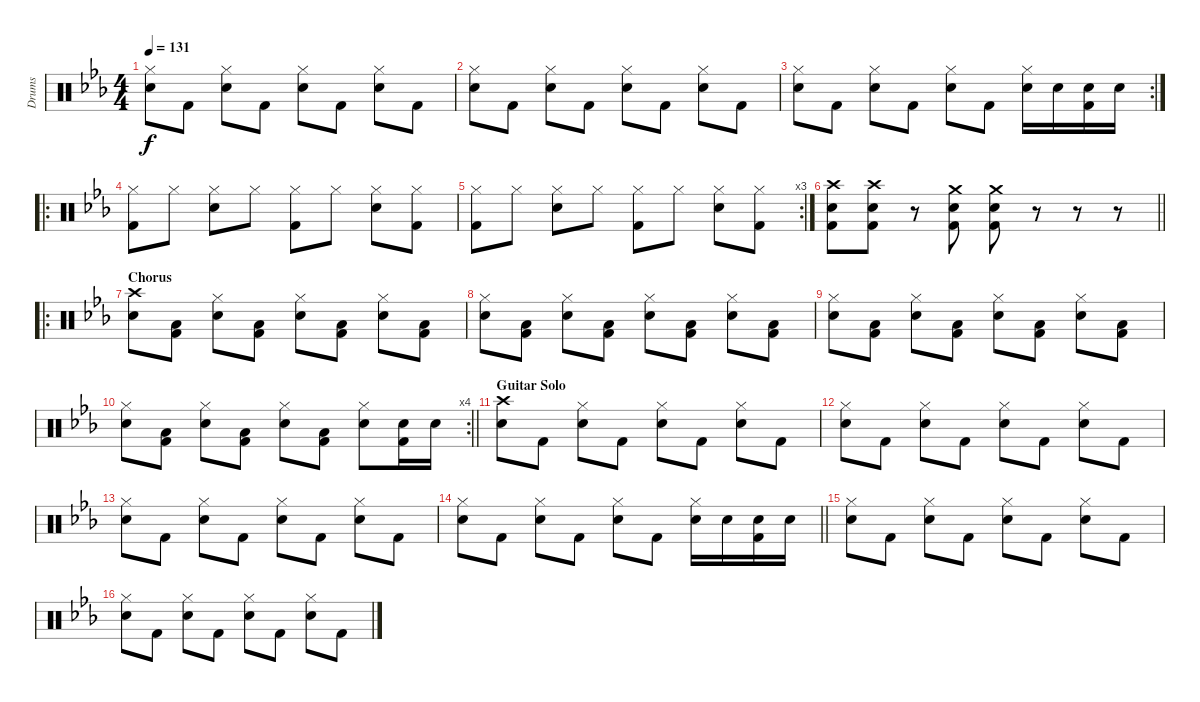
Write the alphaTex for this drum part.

\track ("Drums" "Drums") {instrument percussion}
\staff
\articulation defaults
\ts (4 4)
\tempo 131
\clef neutral
\ks eb
("Snare (hit) 2" "Hi-Hat (closed)").8{dy f} "Kick (hit) 2".8 ("Snare (hit) 2" "Hi-Hat (closed)").8 "Kick (hit) 2".8 ("Snare (hit) 2" "Hi-Hat (closed)").8 "Kick (hit) 2".8 ("Snare (hit) 2" "Hi-Hat (closed)").8 "Kick (hit) 2".8 |
("Snare (hit) 2" "Hi-Hat (closed)").8 "Kick (hit) 2".8 ("Snare (hit) 2" "Hi-Hat (closed)").8 "Kick (hit) 2".8 ("Snare (hit) 2" "Hi-Hat (closed)").8 "Kick (hit) 2".8 ("Snare (hit) 2" "Hi-Hat (closed)").8 "Kick (hit) 2".8 |
\rc 2
("Snare (hit) 2" "Hi-Hat (closed)").8 "Kick (hit) 2".8 ("Snare (hit) 2" "Hi-Hat (closed)").8 "Kick (hit) 2".8 ("Snare (hit) 2" "Hi-Hat (closed)").8 "Kick (hit) 2".8 ("Snare (hit) 2" "Hi-Hat (closed)").16 "Snare (hit) 2".16 ("Snare (hit) 2" "Kick (hit) 2").16 "Snare (hit) 2".16 |
\ro
("Hi-Hat (closed)" "Kick (hit) 2").8 "Hi-Hat (closed)".8 ("Snare (hit) 2" "Hi-Hat (closed)").8 "Hi-Hat (closed)".8 ("Hi-Hat (closed)" "Kick (hit) 2").8 "Hi-Hat (closed)".8 ("Snare (hit) 2" "Hi-Hat (closed)").8 ("Hi-Hat (closed)" "Kick (hit) 2").8 |
\rc 3
("Hi-Hat (closed)" "Kick (hit) 2").8 "Hi-Hat (closed)".8 ("Snare (hit) 2" "Hi-Hat (closed)").8 "Hi-Hat (closed)".8 ("Hi-Hat (closed)" "Kick (hit) 2").8 "Hi-Hat (closed)".8 ("Snare (hit) 2" "Hi-Hat (closed)").8 ("Hi-Hat (closed)" "Kick (hit) 2").8 |
\barLineRight lightlight
("Crash high (hit)" "Snare (hit) 2" "Kick (hit) 2").8 ("Crash high (hit)" "Snare (hit) 2" "Kick (hit) 2").8 r.8 ("Crash medium (hit)" "Snare (hit) 2" "Kick (hit) 2").8 ("Crash medium (hit)" "Snare (hit) 2" "Kick (hit) 2").8 r.8 r.8 r.8 |
\ro
\section ("" "Chorus")
("Crash high (hit)" "Snare (hit) 2").8 ("Low Floor Tom (hit)" "Kick (hit) 2").8 ("Snare (hit) 2" "Hi-Hat (closed)").8 ("Low Floor Tom (hit)" "Kick (hit) 2").8 ("Snare (hit) 2" "Hi-Hat (closed)").8 ("Low Floor Tom (hit)" "Kick (hit) 2").8 ("Snare (hit) 2" "Hi-Hat (closed)").8 ("Low Floor Tom (hit)" "Kick (hit) 2").8 |
("Snare (hit) 2" "Hi-Hat (closed)").8 ("Low Floor Tom (hit)" "Kick (hit) 2").8 ("Snare (hit) 2" "Hi-Hat (closed)").8 ("Low Floor Tom (hit)" "Kick (hit) 2").8 ("Snare (hit) 2" "Hi-Hat (closed)").8 ("Low Floor Tom (hit)" "Kick (hit) 2").8 ("Snare (hit) 2" "Hi-Hat (closed)").8 ("Low Floor Tom (hit)" "Kick (hit) 2").8 |
("Snare (hit) 2" "Hi-Hat (closed)").8 ("Low Floor Tom (hit)" "Kick (hit) 2").8 ("Snare (hit) 2" "Hi-Hat (closed)").8 ("Low Floor Tom (hit)" "Kick (hit) 2").8 ("Snare (hit) 2" "Hi-Hat (closed)").8 ("Low Floor Tom (hit)" "Kick (hit) 2").8 ("Snare (hit) 2" "Hi-Hat (closed)").8 ("Low Floor Tom (hit)" "Kick (hit) 2").8 |
\rc 4
\barLineRight lightlight
("Snare (hit) 2" "Hi-Hat (closed)").8 ("Low Floor Tom (hit)" "Kick (hit) 2").8 ("Snare (hit) 2" "Hi-Hat (closed)").8 ("Low Floor Tom (hit)" "Kick (hit) 2").8 ("Snare (hit) 2" "Hi-Hat (closed)").8 ("Low Floor Tom (hit)" "Kick (hit) 2").8 ("Snare (hit) 2" "Hi-Hat (closed)").8 ("Snare (hit) 2" "Kick (hit) 2").16 "Snare (hit) 2".16 |
\section ("" "Guitar Solo")
("Crash high (hit)" "Snare (hit) 2").8 "Kick (hit) 2".8 ("Snare (hit) 2" "Hi-Hat (closed)").8 "Kick (hit) 2".8 ("Snare (hit) 2" "Hi-Hat (closed)").8 "Kick (hit) 2".8 ("Snare (hit) 2" "Hi-Hat (closed)").8 "Kick (hit) 2".8 |
("Snare (hit) 2" "Hi-Hat (closed)").8 "Kick (hit) 2".8 ("Snare (hit) 2" "Hi-Hat (closed)").8 "Kick (hit) 2".8 ("Snare (hit) 2" "Hi-Hat (closed)").8 "Kick (hit) 2".8 ("Snare (hit) 2" "Hi-Hat (closed)").8 "Kick (hit) 2".8 |
("Snare (hit) 2" "Hi-Hat (closed)").8 "Kick (hit) 2".8 ("Snare (hit) 2" "Hi-Hat (closed)").8 "Kick (hit) 2".8 ("Snare (hit) 2" "Hi-Hat (closed)").8 "Kick (hit) 2".8 ("Snare (hit) 2" "Hi-Hat (closed)").8 "Kick (hit) 2".8 |
\barLineRight lightlight
("Snare (hit) 2" "Hi-Hat (closed)").8 "Kick (hit) 2".8 ("Snare (hit) 2" "Hi-Hat (closed)").8 "Kick (hit) 2".8 ("Snare (hit) 2" "Hi-Hat (closed)").8 "Kick (hit) 2".8 ("Snare (hit) 2" "Hi-Hat (closed)").16 "Snare (hit) 2".16 ("Snare (hit) 2" "Kick (hit) 2").16 "Snare (hit) 2".16 |
("Snare (hit) 2" "Hi-Hat (closed)").8 "Kick (hit) 2".8 ("Snare (hit) 2" "Hi-Hat (closed)").8 "Kick (hit) 2".8 ("Snare (hit) 2" "Hi-Hat (closed)").8 "Kick (hit) 2".8 ("Snare (hit) 2" "Hi-Hat (closed)").8 "Kick (hit) 2".8 |
("Snare (hit) 2" "Hi-Hat (closed)").8 "Kick (hit) 2".8 ("Snare (hit) 2" "Hi-Hat (closed)").8 "Kick (hit) 2".8 ("Snare (hit) 2" "Hi-Hat (closed)").8 "Kick (hit) 2".8 ("Snare (hit) 2" "Hi-Hat (closed)").8 "Kick (hit) 2".8
